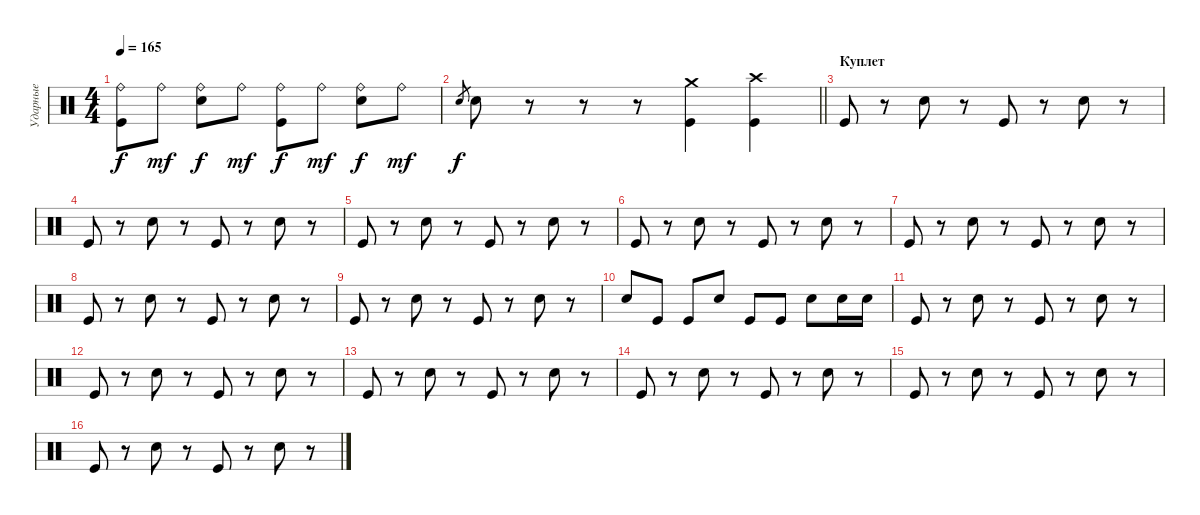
\track ("Ударные" "Ударные") {instrument percussion}
\staff {score}
\articulation defaults
\ts (4 4)
\tempo 165
\clef neutral
\ks c
("Ride (bell)" "Kick (hit)").8{dy f} "Ride (bell)".8{dy mf} ("Ride (bell)" "Electric Snare (hit)").8{dy f} "Ride (bell)".8{dy mf} ("Ride (bell)" "Kick (hit)").8{dy f} "Ride (bell)".8{dy mf} ("Ride (bell)" "Electric Snare (hit)").8{dy f} "Ride (bell)".8{dy mf} |
\barLineRight lightlight "Electric Snare (hit)".8{gr dy f} "Electric Snare (hit)".8
r.8 r.8 r.8 ("Crash medium (hit)" "Kick (hit)").4 ("Crash high (hit)" "Kick (hit)").4 |
\section ("" "Куплет")
"Kick (hit)".8 r.8 "Electric Snare (hit)".8 r.8 "Kick (hit)".8 r.8 "Electric Snare (hit)".8 r.8 |
"Kick (hit)".8 r.8 "Electric Snare (hit)".8 r.8 "Kick (hit)".8 r.8 "Electric Snare (hit)".8 r.8 |
"Kick (hit)".8 r.8 "Electric Snare (hit)".8 r.8 "Kick (hit)".8 r.8 "Electric Snare (hit)".8 r.8 |
"Kick (hit)".8 r.8 "Electric Snare (hit)".8 r.8 "Kick (hit)".8 r.8 "Electric Snare (hit)".8 r.8 |
"Kick (hit)".8 r.8 "Electric Snare (hit)".8 r.8 "Kick (hit)".8 r.8 "Electric Snare (hit)".8 r.8 |
"Kick (hit)".8 r.8 "Electric Snare (hit)".8 r.8 "Kick (hit)".8 r.8 "Electric Snare (hit)".8 r.8 |
"Kick (hit)".8 r.8 "Electric Snare (hit)".8 r.8 "Kick (hit)".8 r.8 "Electric Snare (hit)".8 r.8 |
"Electric Snare (hit)".8 "Kick (hit)".8 "Kick (hit)".8 "Electric Snare (hit)".8 "Kick (hit)".8 "Kick (hit)".8 "Electric Snare (hit)".8 "Electric Snare (hit)".16 "Electric Snare (hit)".16 |
"Kick (hit)".8 r.8 "Electric Snare (hit)".8 r.8 "Kick (hit)".8 r.8 "Electric Snare (hit)".8 r.8 |
"Kick (hit)".8 r.8 "Electric Snare (hit)".8 r.8 "Kick (hit)".8 r.8 "Electric Snare (hit)".8 r.8 |
"Kick (hit)".8 r.8 "Electric Snare (hit)".8 r.8 "Kick (hit)".8 r.8 "Electric Snare (hit)".8 r.8 |
"Kick (hit)".8 r.8 "Electric Snare (hit)".8 r.8 "Kick (hit)".8 r.8 "Electric Snare (hit)".8 r.8 |
"Kick (hit)".8 r.8 "Electric Snare (hit)".8 r.8 "Kick (hit)".8 r.8 "Electric Snare (hit)".8 r.8 |
"Kick (hit)".8 r.8 "Electric Snare (hit)".8 r.8 "Kick (hit)".8 r.8 "Electric Snare (hit)".8 r.8
